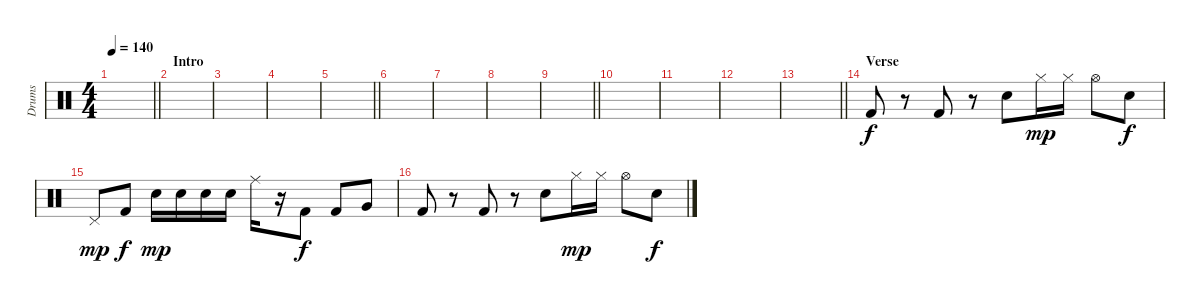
\track ("Drums" "Drums") {instrument percussion}
\staff {score}
\articulation defaults
\ts (4 4)
\tempo 140
\clef neutral
\barLineRight lightlight
\ks c
|
\section ("" "Intro")
|
|
|
\barLineRight lightlight
|
|
|
|
\barLineRight lightlight
|
|
|
|
\barLineRight lightlight
|
\section ("" "Verse")
"Kick (hit) 2".8 r.8 "Kick (hit) 2".8 r.8 "Snare (hit) 2".8 "Hi-Hat (closed)".16{dy mp} "Hi-Hat (closed)".16 "Hi-Hat (open)".8 "Snare (hit) 2".8{dy f} |
"Pedal Hi-Hat (hit)".8{dy mp} "Kick (hit) 2".8{dy f} "Snare (hit) 2".16{dy mp} "Snare (hit) 2".16 "Snare (hit) 2".16 "Snare (hit) 2".16 "Ride (middle)".16 r.16 "Kick (hit) 2".8{dy f} "Kick (hit) 2".8 "Very Low Tom (hit)".8 |
"Kick (hit) 2".8 r.8 "Kick (hit) 2".8 r.8 "Snare (hit) 2".8 "Hi-Hat (closed)".16{dy mp} "Hi-Hat (closed)".16 "Hi-Hat (open)".8 "Snare (hit) 2".8{dy f}
